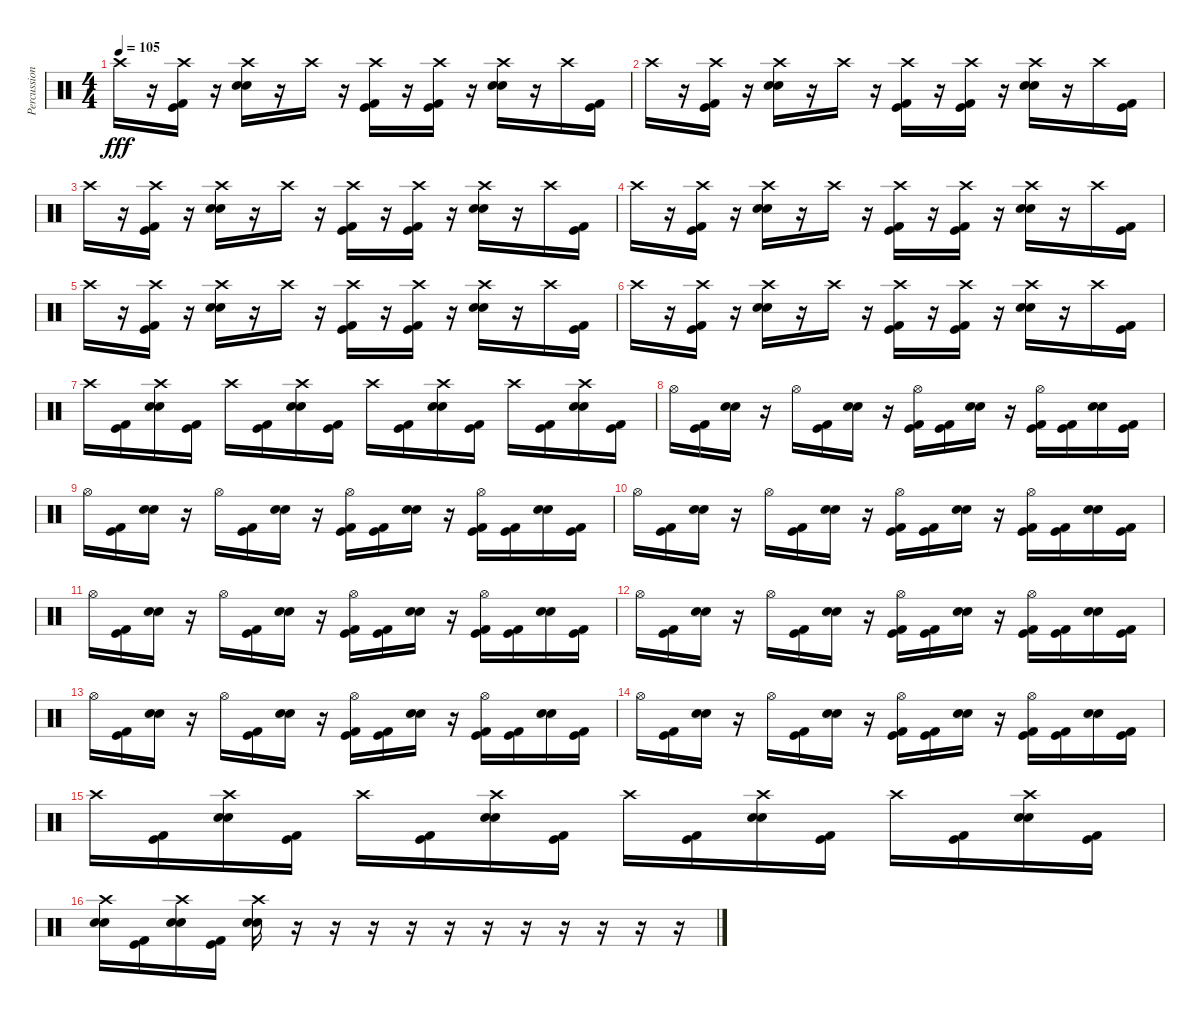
\track ("Percussion" "Percussion") {instrument percussion}
\staff {score}
\articulation defaults
\ts (4 4)
\tempo 105
\clef neutral
\ks c "Crash high (hit)".16{dy fff}
r.16 ("Kick (hit)" "Crash high (hit)" "Kick (hit) 2").16 r.16 ("Snare (hit) 2" "Crash high (hit)" "Electric Snare (hit)").16 r.16 "Crash high (hit)".16 r.16 ("Kick (hit)" "Crash high (hit)" "Kick (hit) 2").16 r.16 ("Kick (hit)" "Crash high (hit)" "Kick (hit) 2").16 r.16 ("Snare (hit) 2" "Crash high (hit)" "Electric Snare (hit)").16 r.16 "Crash high (hit)".16 ("Kick (hit)" "Kick (hit) 2").16 |
"Crash high (hit)".16 r.16 ("Kick (hit)" "Crash high (hit)" "Kick (hit) 2").16 r.16 ("Snare (hit) 2" "Crash high (hit)" "Electric Snare (hit)").16 r.16 "Crash high (hit)".16 r.16 ("Kick (hit)" "Crash high (hit)" "Kick (hit) 2").16 r.16 ("Kick (hit)" "Crash high (hit)" "Kick (hit) 2").16 r.16 ("Snare (hit) 2" "Crash high (hit)" "Electric Snare (hit)").16 r.16 "Crash high (hit)".16 ("Kick (hit)" "Kick (hit) 2").16 |
"Crash high (hit)".16 r.16 ("Kick (hit)" "Crash high (hit)" "Kick (hit) 2").16 r.16 ("Snare (hit) 2" "Crash high (hit)" "Electric Snare (hit)").16 r.16 "Crash high (hit)".16 r.16 ("Kick (hit)" "Crash high (hit)" "Kick (hit) 2").16 r.16 ("Kick (hit)" "Crash high (hit)" "Kick (hit) 2").16 r.16 ("Snare (hit) 2" "Crash high (hit)" "Electric Snare (hit)").16 r.16 "Crash high (hit)".16 ("Kick (hit)" "Kick (hit) 2").16 |
"Crash high (hit)".16 r.16 ("Kick (hit)" "Crash high (hit)" "Kick (hit) 2").16 r.16 ("Snare (hit) 2" "Crash high (hit)" "Electric Snare (hit)").16 r.16 "Crash high (hit)".16 r.16 ("Kick (hit)" "Crash high (hit)" "Kick (hit) 2").16 r.16 ("Kick (hit)" "Crash high (hit)" "Kick (hit) 2").16 r.16 ("Snare (hit) 2" "Crash high (hit)" "Electric Snare (hit)").16 r.16 "Crash high (hit)".16 ("Kick (hit)" "Kick (hit) 2").16 |
"Crash high (hit)".16 r.16 ("Kick (hit)" "Crash high (hit)" "Kick (hit) 2").16 r.16 ("Snare (hit) 2" "Crash high (hit)" "Electric Snare (hit)").16 r.16 "Crash high (hit)".16 r.16 ("Kick (hit)" "Crash high (hit)" "Kick (hit) 2").16 r.16 ("Kick (hit)" "Crash high (hit)" "Kick (hit) 2").16 r.16 ("Snare (hit) 2" "Crash high (hit)" "Electric Snare (hit)").16 r.16 "Crash high (hit)".16 ("Kick (hit)" "Kick (hit) 2").16 |
"Crash high (hit)".16 r.16 ("Kick (hit)" "Crash high (hit)" "Kick (hit) 2").16 r.16 ("Snare (hit) 2" "Crash high (hit)" "Electric Snare (hit)").16 r.16 "Crash high (hit)".16 r.16 ("Kick (hit)" "Crash high (hit)" "Kick (hit) 2").16 r.16 ("Kick (hit)" "Crash high (hit)" "Kick (hit) 2").16 r.16 ("Snare (hit) 2" "Crash high (hit)" "Electric Snare (hit)").16 r.16 "Crash high (hit)".16 ("Kick (hit)" "Kick (hit) 2").16 |
"Crash high (hit)".16 ("Kick (hit)" "Kick (hit) 2").16 ("Snare (hit) 2" "Crash high (hit)" "Electric Snare (hit)").16 ("Kick (hit)" "Kick (hit) 2").16 "Crash high (hit)".16 ("Kick (hit)" "Kick (hit) 2").16 ("Snare (hit) 2" "Crash high (hit)" "Electric Snare (hit)").16 ("Kick (hit)" "Kick (hit) 2").16 "Crash high (hit)".16 ("Kick (hit)" "Kick (hit) 2").16 ("Snare (hit) 2" "Crash high (hit)" "Electric Snare (hit)").16 ("Kick (hit)" "Kick (hit) 2").16 "Crash high (hit)".16 ("Kick (hit)" "Kick (hit) 2").16 ("Snare (hit) 2" "Crash high (hit)" "Electric Snare (hit)").16 ("Kick (hit)" "Kick (hit) 2").16 |
"Hi-Hat (open)".16 ("Kick (hit)" "Kick (hit) 2").16 ("Snare (hit) 2" "Electric Snare (hit)").16 r.16 "Hi-Hat (open)".16 ("Kick (hit)" "Kick (hit) 2").16 ("Snare (hit) 2" "Electric Snare (hit)").16 r.16 ("Kick (hit)" "Hi-Hat (open)" "Kick (hit) 2").16 ("Kick (hit)" "Kick (hit) 2").16 ("Snare (hit) 2" "Electric Snare (hit)").16 r.16 ("Kick (hit)" "Hi-Hat (open)" "Kick (hit) 2").16 ("Kick (hit)" "Kick (hit) 2").16 ("Snare (hit) 2" "Electric Snare (hit)").16 ("Kick (hit)" "Kick (hit) 2").16 |
"Hi-Hat (open)".16 ("Kick (hit)" "Kick (hit) 2").16 ("Snare (hit) 2" "Electric Snare (hit)").16 r.16 "Hi-Hat (open)".16 ("Kick (hit)" "Kick (hit) 2").16 ("Snare (hit) 2" "Electric Snare (hit)").16 r.16 ("Kick (hit)" "Hi-Hat (open)" "Kick (hit) 2").16 ("Kick (hit)" "Kick (hit) 2").16 ("Snare (hit) 2" "Electric Snare (hit)").16 r.16 ("Kick (hit)" "Hi-Hat (open)" "Kick (hit) 2").16 ("Kick (hit)" "Kick (hit) 2").16 ("Snare (hit) 2" "Electric Snare (hit)").16 ("Kick (hit)" "Kick (hit) 2").16 |
"Hi-Hat (open)".16 ("Kick (hit)" "Kick (hit) 2").16 ("Snare (hit) 2" "Electric Snare (hit)").16 r.16 "Hi-Hat (open)".16 ("Kick (hit)" "Kick (hit) 2").16 ("Snare (hit) 2" "Electric Snare (hit)").16 r.16 ("Kick (hit)" "Hi-Hat (open)" "Kick (hit) 2").16 ("Kick (hit)" "Kick (hit) 2").16 ("Snare (hit) 2" "Electric Snare (hit)").16 r.16 ("Kick (hit)" "Hi-Hat (open)" "Kick (hit) 2").16 ("Kick (hit)" "Kick (hit) 2").16 ("Snare (hit) 2" "Electric Snare (hit)").16 ("Kick (hit)" "Kick (hit) 2").16 |
"Hi-Hat (open)".16 ("Kick (hit)" "Kick (hit) 2").16 ("Snare (hit) 2" "Electric Snare (hit)").16 r.16 "Hi-Hat (open)".16 ("Kick (hit)" "Kick (hit) 2").16 ("Snare (hit) 2" "Electric Snare (hit)").16 r.16 ("Kick (hit)" "Hi-Hat (open)" "Kick (hit) 2").16 ("Kick (hit)" "Kick (hit) 2").16 ("Snare (hit) 2" "Electric Snare (hit)").16 r.16 ("Kick (hit)" "Hi-Hat (open)" "Kick (hit) 2").16 ("Kick (hit)" "Kick (hit) 2").16 ("Snare (hit) 2" "Electric Snare (hit)").16 ("Kick (hit)" "Kick (hit) 2").16 |
"Hi-Hat (open)".16 ("Kick (hit)" "Kick (hit) 2").16 ("Snare (hit) 2" "Electric Snare (hit)").16 r.16 "Hi-Hat (open)".16 ("Kick (hit)" "Kick (hit) 2").16 ("Snare (hit) 2" "Electric Snare (hit)").16 r.16 ("Kick (hit)" "Hi-Hat (open)" "Kick (hit) 2").16 ("Kick (hit)" "Kick (hit) 2").16 ("Snare (hit) 2" "Electric Snare (hit)").16 r.16 ("Kick (hit)" "Hi-Hat (open)" "Kick (hit) 2").16 ("Kick (hit)" "Kick (hit) 2").16 ("Snare (hit) 2" "Electric Snare (hit)").16 ("Kick (hit)" "Kick (hit) 2").16 |
"Hi-Hat (open)".16 ("Kick (hit)" "Kick (hit) 2").16 ("Snare (hit) 2" "Electric Snare (hit)").16 r.16 "Hi-Hat (open)".16 ("Kick (hit)" "Kick (hit) 2").16 ("Snare (hit) 2" "Electric Snare (hit)").16 r.16 ("Kick (hit)" "Hi-Hat (open)" "Kick (hit) 2").16 ("Kick (hit)" "Kick (hit) 2").16 ("Snare (hit) 2" "Electric Snare (hit)").16 r.16 ("Kick (hit)" "Hi-Hat (open)" "Kick (hit) 2").16 ("Kick (hit)" "Kick (hit) 2").16 ("Snare (hit) 2" "Electric Snare (hit)").16 ("Kick (hit)" "Kick (hit) 2").16 |
"Hi-Hat (open)".16 ("Kick (hit)" "Kick (hit) 2").16 ("Snare (hit) 2" "Electric Snare (hit)").16 r.16 "Hi-Hat (open)".16 ("Kick (hit)" "Kick (hit) 2").16 ("Snare (hit) 2" "Electric Snare (hit)").16 r.16 ("Kick (hit)" "Hi-Hat (open)" "Kick (hit) 2").16 ("Kick (hit)" "Kick (hit) 2").16 ("Snare (hit) 2" "Electric Snare (hit)").16 r.16 ("Kick (hit)" "Hi-Hat (open)" "Kick (hit) 2").16 ("Kick (hit)" "Kick (hit) 2").16 ("Snare (hit) 2" "Electric Snare (hit)").16 ("Kick (hit)" "Kick (hit) 2").16 |
"Crash high (hit)".16 ("Kick (hit)" "Kick (hit) 2").16 ("Snare (hit) 2" "Crash high (hit)" "Electric Snare (hit)").16 ("Kick (hit)" "Kick (hit) 2").16 "Crash high (hit)".16 ("Kick (hit)" "Kick (hit) 2").16 ("Snare (hit) 2" "Crash high (hit)" "Electric Snare (hit)").16 ("Kick (hit)" "Kick (hit) 2").16 "Crash high (hit)".16 ("Kick (hit)" "Kick (hit) 2").16 ("Snare (hit) 2" "Crash high (hit)" "Electric Snare (hit)").16 ("Kick (hit)" "Kick (hit) 2").16 "Crash high (hit)".16 ("Kick (hit)" "Kick (hit) 2").16 ("Snare (hit) 2" "Crash high (hit)" "Electric Snare (hit)").16 ("Kick (hit)" "Kick (hit) 2").16 |
("Snare (hit) 2" "Crash high (hit)" "Electric Snare (hit)").16 ("Kick (hit)" "Kick (hit) 2").16 ("Snare (hit) 2" "Crash high (hit)" "Electric Snare (hit)").16 ("Kick (hit)" "Kick (hit) 2").16 ("Snare (hit) 2" "Crash high (hit)" "Electric Snare (hit)").16 r.16 r.16 r.16 r.16 r.16 r.16 r.16 r.16 r.16 r.16 r.16
